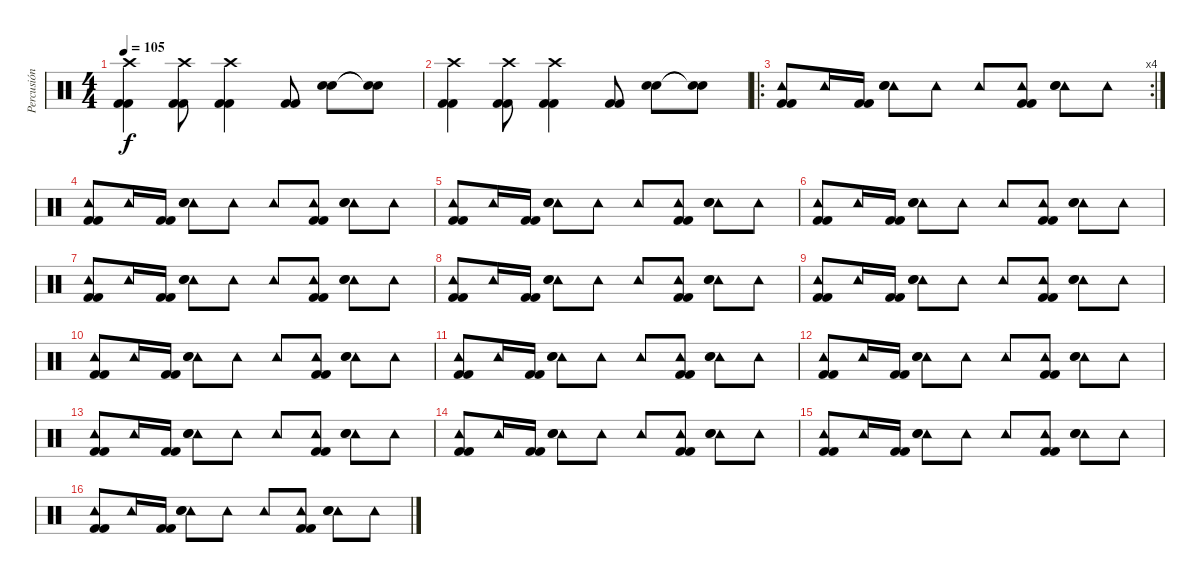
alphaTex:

\track ("Percusión" "Percusión") {instrument percussion}
\staff {score}
\articulation defaults
\ts (4 4)
\tempo 105
\clef neutral
\ks c
("Crash high (hit)" "Kick (hit) 2" "Kick (hit) 2").4{dy f} ("Crash high (hit)" "Kick (hit) 2" "Kick (hit) 2").8 ("Crash high (hit)" "Kick (hit) 2" "Kick (hit) 2").4 ("Kick (hit) 2" "Kick (hit) 2").8 ("Electric Snare (hit)" "Electric Snare (hit)").8 ("Snare (hit)"{t} "Snare (hit)"{t}).8 |
("Crash high (hit)" "Kick (hit) 2" "Kick (hit) 2").4 ("Crash high (hit)" "Kick (hit) 2" "Kick (hit) 2").8 ("Crash high (hit)" "Kick (hit) 2" "Kick (hit) 2").4 ("Kick (hit) 2" "Kick (hit) 2").8 ("Electric Snare (hit)" "Electric Snare (hit)").8 ("Snare (hit)"{t} "Snare (hit)"{t}).8 |
\ro
\rc 4
("Tambourine (hit)" "Kick (hit) 2" "Kick (hit) 2").8 "Tambourine (hit)".16 ("Kick (hit) 2" "Kick (hit) 2").16 ("Tambourine (hit)" "Electric Snare (hit)" "Electric Snare (hit)").8 "Tambourine (hit)".8 "Tambourine (hit)".8 ("Tambourine (hit)" "Kick (hit) 2" "Kick (hit) 2").8 ("Tambourine (hit)" "Electric Snare (hit)" "Electric Snare (hit)").8 "Tambourine (hit)".8 |
("Tambourine (hit)" "Kick (hit) 2" "Kick (hit) 2").8 "Tambourine (hit)".16 ("Kick (hit) 2" "Kick (hit) 2").16 ("Tambourine (hit)" "Electric Snare (hit)" "Electric Snare (hit)").8 "Tambourine (hit)".8 "Tambourine (hit)".8 ("Tambourine (hit)" "Kick (hit) 2" "Kick (hit) 2").8 ("Tambourine (hit)" "Electric Snare (hit)" "Electric Snare (hit)").8 "Tambourine (hit)".8 |
("Tambourine (hit)" "Kick (hit) 2" "Kick (hit) 2").8 "Tambourine (hit)".16 ("Kick (hit) 2" "Kick (hit) 2").16 ("Tambourine (hit)" "Electric Snare (hit)" "Electric Snare (hit)").8 "Tambourine (hit)".8 "Tambourine (hit)".8 ("Tambourine (hit)" "Kick (hit) 2" "Kick (hit) 2").8 ("Tambourine (hit)" "Electric Snare (hit)" "Electric Snare (hit)").8 "Tambourine (hit)".8 |
("Tambourine (hit)" "Kick (hit) 2" "Kick (hit) 2").8 "Tambourine (hit)".16 ("Kick (hit) 2" "Kick (hit) 2").16 ("Tambourine (hit)" "Electric Snare (hit)" "Electric Snare (hit)").8 "Tambourine (hit)".8 "Tambourine (hit)".8 ("Tambourine (hit)" "Kick (hit) 2" "Kick (hit) 2").8 ("Tambourine (hit)" "Electric Snare (hit)" "Electric Snare (hit)").8 "Tambourine (hit)".8 |
("Tambourine (hit)" "Kick (hit) 2" "Kick (hit) 2").8 "Tambourine (hit)".16 ("Kick (hit) 2" "Kick (hit) 2").16 ("Tambourine (hit)" "Electric Snare (hit)" "Electric Snare (hit)").8 "Tambourine (hit)".8 "Tambourine (hit)".8 ("Tambourine (hit)" "Kick (hit) 2" "Kick (hit) 2").8 ("Tambourine (hit)" "Electric Snare (hit)" "Electric Snare (hit)").8 "Tambourine (hit)".8 |
("Tambourine (hit)" "Kick (hit) 2" "Kick (hit) 2").8 "Tambourine (hit)".16 ("Kick (hit) 2" "Kick (hit) 2").16 ("Tambourine (hit)" "Electric Snare (hit)" "Electric Snare (hit)").8 "Tambourine (hit)".8 "Tambourine (hit)".8 ("Tambourine (hit)" "Kick (hit) 2" "Kick (hit) 2").8 ("Tambourine (hit)" "Electric Snare (hit)" "Electric Snare (hit)").8 "Tambourine (hit)".8 |
("Tambourine (hit)" "Kick (hit) 2" "Kick (hit) 2").8 "Tambourine (hit)".16 ("Kick (hit) 2" "Kick (hit) 2").16 ("Tambourine (hit)" "Electric Snare (hit)" "Electric Snare (hit)").8 "Tambourine (hit)".8 "Tambourine (hit)".8 ("Tambourine (hit)" "Kick (hit) 2" "Kick (hit) 2").8 ("Tambourine (hit)" "Electric Snare (hit)" "Electric Snare (hit)").8 "Tambourine (hit)".8 |
("Tambourine (hit)" "Kick (hit) 2" "Kick (hit) 2").8 "Tambourine (hit)".16 ("Kick (hit) 2" "Kick (hit) 2").16 ("Tambourine (hit)" "Electric Snare (hit)" "Electric Snare (hit)").8 "Tambourine (hit)".8 "Tambourine (hit)".8 ("Tambourine (hit)" "Kick (hit) 2" "Kick (hit) 2").8 ("Tambourine (hit)" "Electric Snare (hit)" "Electric Snare (hit)").8 "Tambourine (hit)".8 |
("Tambourine (hit)" "Kick (hit) 2" "Kick (hit) 2").8 "Tambourine (hit)".16 ("Kick (hit) 2" "Kick (hit) 2").16 ("Tambourine (hit)" "Electric Snare (hit)" "Electric Snare (hit)").8 "Tambourine (hit)".8 "Tambourine (hit)".8 ("Tambourine (hit)" "Kick (hit) 2" "Kick (hit) 2").8 ("Tambourine (hit)" "Electric Snare (hit)" "Electric Snare (hit)").8 "Tambourine (hit)".8 |
("Tambourine (hit)" "Kick (hit) 2" "Kick (hit) 2").8 "Tambourine (hit)".16 ("Kick (hit) 2" "Kick (hit) 2").16 ("Tambourine (hit)" "Electric Snare (hit)" "Electric Snare (hit)").8 "Tambourine (hit)".8 "Tambourine (hit)".8 ("Tambourine (hit)" "Kick (hit) 2" "Kick (hit) 2").8 ("Tambourine (hit)" "Electric Snare (hit)" "Electric Snare (hit)").8 "Tambourine (hit)".8 |
("Tambourine (hit)" "Kick (hit) 2" "Kick (hit) 2").8 "Tambourine (hit)".16 ("Kick (hit) 2" "Kick (hit) 2").16 ("Tambourine (hit)" "Electric Snare (hit)" "Electric Snare (hit)").8 "Tambourine (hit)".8 "Tambourine (hit)".8 ("Tambourine (hit)" "Kick (hit) 2" "Kick (hit) 2").8 ("Tambourine (hit)" "Electric Snare (hit)" "Electric Snare (hit)").8 "Tambourine (hit)".8 |
("Tambourine (hit)" "Kick (hit) 2" "Kick (hit) 2").8 "Tambourine (hit)".16 ("Kick (hit) 2" "Kick (hit) 2").16 ("Tambourine (hit)" "Electric Snare (hit)" "Electric Snare (hit)").8 "Tambourine (hit)".8 "Tambourine (hit)".8 ("Tambourine (hit)" "Kick (hit) 2" "Kick (hit) 2").8 ("Tambourine (hit)" "Electric Snare (hit)" "Electric Snare (hit)").8 "Tambourine (hit)".8 |
("Tambourine (hit)" "Kick (hit) 2" "Kick (hit) 2").8 "Tambourine (hit)".16 ("Kick (hit) 2" "Kick (hit) 2").16 ("Tambourine (hit)" "Electric Snare (hit)" "Electric Snare (hit)").8 "Tambourine (hit)".8 "Tambourine (hit)".8 ("Tambourine (hit)" "Kick (hit) 2" "Kick (hit) 2").8 ("Tambourine (hit)" "Electric Snare (hit)" "Electric Snare (hit)").8 "Tambourine (hit)".8 |
("Tambourine (hit)" "Kick (hit) 2" "Kick (hit) 2").8 "Tambourine (hit)".16 ("Kick (hit) 2" "Kick (hit) 2").16 ("Tambourine (hit)" "Electric Snare (hit)" "Electric Snare (hit)").8 "Tambourine (hit)".8 "Tambourine (hit)".8 ("Tambourine (hit)" "Kick (hit) 2" "Kick (hit) 2").8 ("Tambourine (hit)" "Electric Snare (hit)" "Electric Snare (hit)").8 "Tambourine (hit)".8
